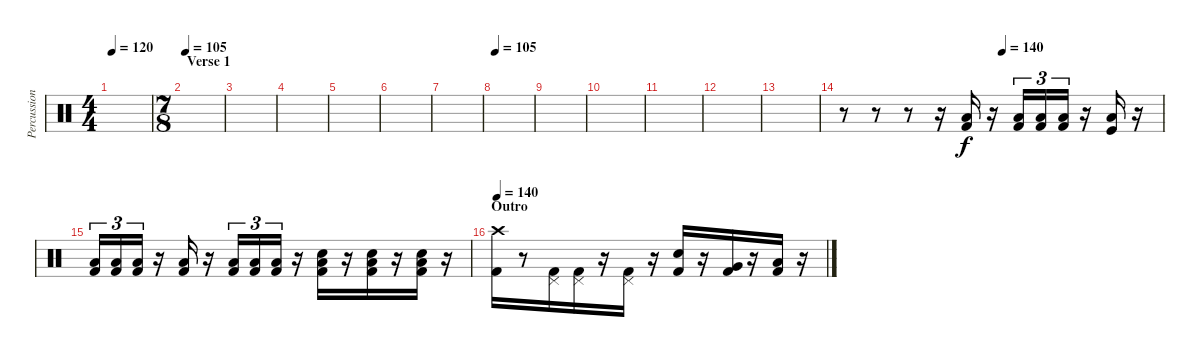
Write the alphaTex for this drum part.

\track ("Percussion" "Percussion") {instrument percussion}
\staff {score}
\articulation defaults
\ts (4 4)
\tempo 120
\clef neutral
\ks c
|
\ts (7 8)
\section ("" "Verse 1")
\tempo 105
|
|
|
|
|
|
\tempo 105
|
|
|
|
|
|
\tempo (140 0.5)
r.8 r.8 r.8 r.16 ("Low Tom (hit)" "Kick (hit) 2").16{volume 13} r.16 ("Low Tom (hit)" "Kick (hit) 2").16{tu (3 2)} ("Low Tom (hit)" "Kick (hit) 2").16{tu (3 2)} ("Low Tom (hit)" "Kick (hit) 2").16{tu (3 2)} r.16 ("Low Tom (hit)" "Kick (hit)").16 r.16 |
("Low Tom (hit)" "Kick (hit) 2").16{tu (3 2)} ("Low Tom (hit)" "Kick (hit) 2").16{tu (3 2)} ("Low Tom (hit)" "Kick (hit) 2").16{tu (3 2)} r.16 ("Low Tom (hit)" "Kick (hit) 2").16 r.16 ("Low Tom (hit)" "Kick (hit) 2").16{tu (3 2)} ("Low Tom (hit)" "Kick (hit) 2").16{tu (3 2)} ("Low Tom (hit)" "Kick (hit) 2").16{tu (3 2)} r.16 ("Low Tom (hit)" "Snare (hit) 2" "Kick (hit) 2").16 r.16 ("Low Tom (hit)" "Snare (hit) 2" "Kick (hit) 2").16 r.16 ("Low Tom (hit)" "Snare (hit) 2" "Kick (hit) 2").16 r.16 |
\section ("" "Outro")
\tempo 145
\tempo 140
("Crash high (hit)" "Kick (hit) 2").16 r.8 ("Pedal Hi-Hat (hit)" "Kick (hit) 2").16 ("Pedal Hi-Hat (hit)" "Kick (hit) 2").16 r.16 ("Pedal Hi-Hat (hit)" "Kick (hit) 2").16 r.16 ("Snare (hit) 2" "Kick (hit) 2").16 r.16 ("Very Low Tom (hit)" "Kick (hit) 2").16 r.16 ("Low Tom (hit)" "Kick (hit) 2").16 r.16
